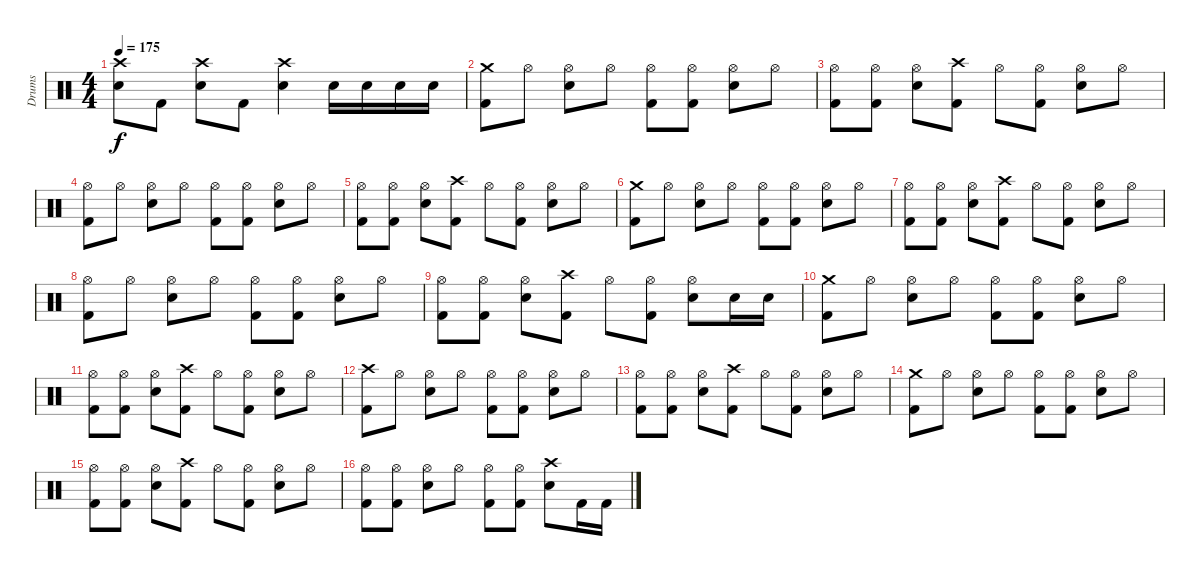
\track ("Drums" "Drums") {instrument percussion}
\staff {score}
\articulation defaults
\ts (4 4)
\tempo 175
\clef neutral
\ks c
("Crash high (hit)" "Snare (hit) 2").8{dy f} "Kick (hit) 2".8 ("Crash high (hit)" "Snare (hit) 2").8 "Kick (hit) 2".8 ("Crash high (hit)" "Snare (hit) 2").4 "Snare (hit) 2".16 "Snare (hit) 2".16 "Snare (hit) 2".16 "Snare (hit) 2".16 |
("Crash medium (hit)" "Kick (hit) 2").8 "Hi-Hat (open)".8 ("Hi-Hat (open)" "Snare (hit) 2").8 "Hi-Hat (open)".8 ("Hi-Hat (open)" "Kick (hit) 2").8 ("Hi-Hat (open)" "Kick (hit) 2").8 ("Hi-Hat (open)" "Snare (hit) 2").8 "Hi-Hat (open)".8 |
("Hi-Hat (open)" "Kick (hit) 2").8 ("Hi-Hat (open)" "Kick (hit) 2").8 ("Hi-Hat (open)" "Snare (hit) 2").8 ("Crash high (hit)" "Kick (hit) 2").8 "Hi-Hat (open)".8 ("Hi-Hat (open)" "Kick (hit) 2").8 ("Hi-Hat (open)" "Snare (hit) 2").8 "Hi-Hat (open)".8 |
("Hi-Hat (open)" "Kick (hit) 2").8 "Hi-Hat (open)".8 ("Hi-Hat (open)" "Snare (hit) 2").8 "Hi-Hat (open)".8 ("Hi-Hat (open)" "Kick (hit) 2").8 ("Hi-Hat (open)" "Kick (hit) 2").8 ("Hi-Hat (open)" "Snare (hit) 2").8 "Hi-Hat (open)".8 |
("Hi-Hat (open)" "Kick (hit) 2").8 ("Hi-Hat (open)" "Kick (hit) 2").8 ("Hi-Hat (open)" "Snare (hit) 2").8 ("Crash high (hit)" "Kick (hit) 2").8 "Hi-Hat (open)".8 ("Hi-Hat (open)" "Kick (hit) 2").8 ("Hi-Hat (open)" "Snare (hit) 2").8 "Hi-Hat (open)".8 |
("Crash medium (hit)" "Kick (hit) 2").8 "Hi-Hat (open)".8 ("Hi-Hat (open)" "Snare (hit) 2").8 "Hi-Hat (open)".8 ("Hi-Hat (open)" "Kick (hit) 2").8 ("Hi-Hat (open)" "Kick (hit) 2").8 ("Hi-Hat (open)" "Snare (hit) 2").8 "Hi-Hat (open)".8 |
("Hi-Hat (open)" "Kick (hit) 2").8 ("Hi-Hat (open)" "Kick (hit) 2").8 ("Hi-Hat (open)" "Snare (hit) 2").8 ("Crash high (hit)" "Kick (hit) 2").8 "Hi-Hat (open)".8 ("Hi-Hat (open)" "Kick (hit) 2").8 ("Hi-Hat (open)" "Snare (hit) 2").8 "Hi-Hat (open)".8 |
("Hi-Hat (open)" "Kick (hit) 2").8 "Hi-Hat (open)".8 ("Hi-Hat (open)" "Snare (hit) 2").8 "Hi-Hat (open)".8 ("Hi-Hat (open)" "Kick (hit) 2").8 ("Hi-Hat (open)" "Kick (hit) 2").8 ("Hi-Hat (open)" "Snare (hit) 2").8 "Hi-Hat (open)".8 |
("Hi-Hat (open)" "Kick (hit) 2").8 ("Hi-Hat (open)" "Kick (hit) 2").8 ("Hi-Hat (open)" "Snare (hit) 2").8 ("Crash high (hit)" "Kick (hit) 2").8 "Hi-Hat (open)".8 ("Hi-Hat (open)" "Kick (hit) 2").8 ("Hi-Hat (open)" "Snare (hit) 2").8 "Snare (hit) 2".16 "Snare (hit) 2".16 |
("Crash medium (hit)" "Kick (hit) 2").8 "Hi-Hat (open)".8 ("Hi-Hat (open)" "Snare (hit) 2").8 "Hi-Hat (open)".8 ("Hi-Hat (open)" "Kick (hit) 2").8 ("Hi-Hat (open)" "Kick (hit) 2").8 ("Hi-Hat (open)" "Snare (hit) 2").8 "Hi-Hat (open)".8 |
("Hi-Hat (open)" "Kick (hit) 2").8 ("Hi-Hat (open)" "Kick (hit) 2").8 ("Hi-Hat (open)" "Snare (hit) 2").8 ("Crash high (hit)" "Kick (hit) 2").8 "Hi-Hat (open)".8 ("Hi-Hat (open)" "Kick (hit) 2").8 ("Hi-Hat (open)" "Snare (hit) 2").8 "Hi-Hat (open)".8 |
("Crash high (hit)" "Kick (hit) 2").8 "Hi-Hat (open)".8 ("Hi-Hat (open)" "Snare (hit) 2").8 "Hi-Hat (open)".8 ("Hi-Hat (open)" "Kick (hit) 2").8 ("Hi-Hat (open)" "Kick (hit) 2").8 ("Hi-Hat (open)" "Snare (hit) 2").8 "Hi-Hat (open)".8 |
("Hi-Hat (open)" "Kick (hit) 2").8 ("Hi-Hat (open)" "Kick (hit) 2").8 ("Hi-Hat (open)" "Snare (hit) 2").8 ("Crash high (hit)" "Kick (hit) 2").8 "Hi-Hat (open)".8 ("Hi-Hat (open)" "Kick (hit) 2").8 ("Hi-Hat (open)" "Snare (hit) 2").8 "Hi-Hat (open)".8 |
("Crash medium (hit)" "Kick (hit) 2").8 "Hi-Hat (open)".8 ("Hi-Hat (open)" "Snare (hit) 2").8 "Hi-Hat (open)".8 ("Hi-Hat (open)" "Kick (hit) 2").8 ("Hi-Hat (open)" "Kick (hit) 2").8 ("Hi-Hat (open)" "Snare (hit) 2").8 "Hi-Hat (open)".8 |
("Hi-Hat (open)" "Kick (hit) 2").8 ("Hi-Hat (open)" "Kick (hit) 2").8 ("Hi-Hat (open)" "Snare (hit) 2").8 ("Crash high (hit)" "Kick (hit) 2").8 "Hi-Hat (open)".8 ("Hi-Hat (open)" "Kick (hit) 2").8 ("Hi-Hat (open)" "Snare (hit) 2").8 "Hi-Hat (open)".8 |
("Hi-Hat (open)" "Kick (hit) 2").8 ("Hi-Hat (open)" "Kick (hit) 2").8 ("Hi-Hat (open)" "Snare (hit) 2").8 "Hi-Hat (open)".8 ("Hi-Hat (open)" "Kick (hit) 2").8 ("Hi-Hat (open)" "Kick (hit) 2").8 ("Crash high (hit)" "Snare (hit) 2").8 "Kick (hit) 2".16 "Kick (hit) 2".16
